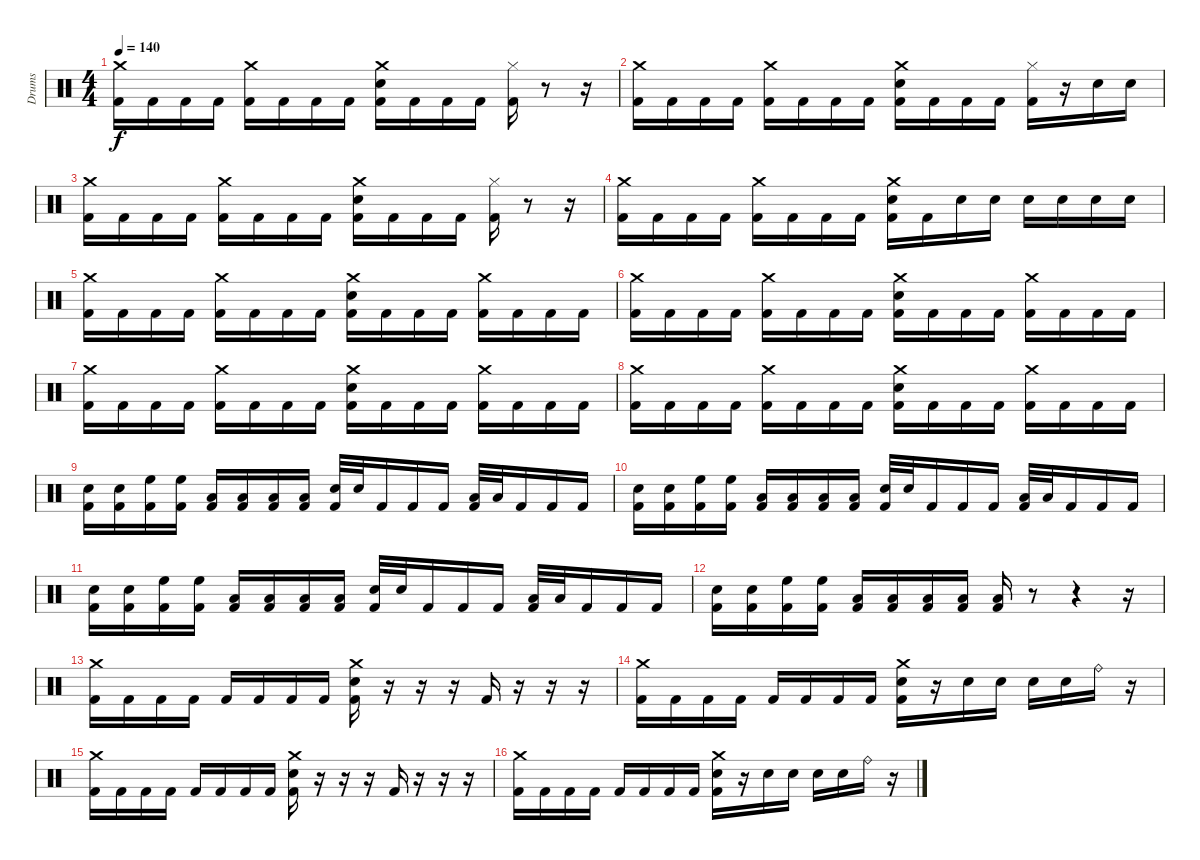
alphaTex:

\track ("Drums" "Drums") {instrument percussion}
\staff {score}
\articulation defaults
\ts (4 4)
\tempo 140
\clef neutral
\ks c
("Crash medium (hit)" "Kick (hit) 2").16{dy f} "Kick (hit) 2".16 "Kick (hit) 2".16 "Kick (hit) 2".16 ("Crash medium (hit)" "Kick (hit) 2").16 "Kick (hit) 2".16 "Kick (hit) 2".16 "Kick (hit) 2".16 ("Crash medium (hit)" "Electric Snare (hit)" "Kick (hit) 2").16 "Kick (hit) 2".16 "Kick (hit) 2".16 "Kick (hit) 2".16 ("Hi-Hat (closed)" "Kick (hit) 2").16 r.8 r.16 |
("Crash medium (hit)" "Kick (hit) 2").16 "Kick (hit) 2".16 "Kick (hit) 2".16 "Kick (hit) 2".16 ("Crash medium (hit)" "Kick (hit) 2").16 "Kick (hit) 2".16 "Kick (hit) 2".16 "Kick (hit) 2".16 ("Crash medium (hit)" "Electric Snare (hit)" "Kick (hit) 2").16 "Kick (hit) 2".16 "Kick (hit) 2".16 "Kick (hit) 2".16 ("Hi-Hat (closed)" "Kick (hit) 2").16 r.16 "Electric Snare (hit)".16 "Electric Snare (hit)".16 |
("Crash medium (hit)" "Kick (hit) 2").16 "Kick (hit) 2".16 "Kick (hit) 2".16 "Kick (hit) 2".16 ("Crash medium (hit)" "Kick (hit) 2").16 "Kick (hit) 2".16 "Kick (hit) 2".16 "Kick (hit) 2".16 ("Crash medium (hit)" "Electric Snare (hit)" "Kick (hit) 2").16 "Kick (hit) 2".16 "Kick (hit) 2".16 "Kick (hit) 2".16 ("Hi-Hat (closed)" "Kick (hit) 2").16 r.8 r.16 |
("Crash medium (hit)" "Kick (hit) 2").16 "Kick (hit) 2".16 "Kick (hit) 2".16 "Kick (hit) 2".16 ("Crash medium (hit)" "Kick (hit) 2").16 "Kick (hit) 2".16 "Kick (hit) 2".16 "Kick (hit) 2".16 ("Crash medium (hit)" "Electric Snare (hit)" "Kick (hit) 2").16 "Kick (hit) 2".16 "Electric Snare (hit)".16 "Electric Snare (hit)".16 "Electric Snare (hit)".16 "Electric Snare (hit)".16 "Electric Snare (hit)".16 "Electric Snare (hit)".16 |
("Crash medium (hit)" "Kick (hit) 2").16 "Kick (hit) 2".16 "Kick (hit) 2".16 "Kick (hit) 2".16 ("Crash medium (hit)" "Kick (hit) 2").16 "Kick (hit) 2".16 "Kick (hit) 2".16 "Kick (hit) 2".16 ("Crash medium (hit)" "Electric Snare (hit)" "Kick (hit) 2").16 "Kick (hit) 2".16 "Kick (hit) 2".16 "Kick (hit) 2".16 ("Crash medium (hit)" "Kick (hit) 2").16 "Kick (hit) 2".16 "Kick (hit) 2".16 "Kick (hit) 2".16 |
("Crash medium (hit)" "Kick (hit) 2").16 "Kick (hit) 2".16 "Kick (hit) 2".16 "Kick (hit) 2".16 ("Crash medium (hit)" "Kick (hit) 2").16 "Kick (hit) 2".16 "Kick (hit) 2".16 "Kick (hit) 2".16 ("Crash medium (hit)" "Electric Snare (hit)" "Kick (hit) 2").16 "Kick (hit) 2".16 "Kick (hit) 2".16 "Kick (hit) 2".16 ("Crash medium (hit)" "Kick (hit) 2").16 "Kick (hit) 2".16 "Kick (hit) 2".16 "Kick (hit) 2".16 |
("Crash medium (hit)" "Kick (hit) 2").16 "Kick (hit) 2".16 "Kick (hit) 2".16 "Kick (hit) 2".16 ("Crash medium (hit)" "Kick (hit) 2").16 "Kick (hit) 2".16 "Kick (hit) 2".16 "Kick (hit) 2".16 ("Crash medium (hit)" "Electric Snare (hit)" "Kick (hit) 2").16 "Kick (hit) 2".16 "Kick (hit) 2".16 "Kick (hit) 2".16 ("Crash medium (hit)" "Kick (hit) 2").16 "Kick (hit) 2".16 "Kick (hit) 2".16 "Kick (hit) 2".16 |
("Crash medium (hit)" "Kick (hit) 2").16 "Kick (hit) 2".16 "Kick (hit) 2".16 "Kick (hit) 2".16 ("Crash medium (hit)" "Kick (hit) 2").16 "Kick (hit) 2".16 "Kick (hit) 2".16 "Kick (hit) 2".16 ("Crash medium (hit)" "Electric Snare (hit)" "Kick (hit) 2").16 "Kick (hit) 2".16 "Kick (hit) 2".16 "Kick (hit) 2".16 ("Crash medium (hit)" "Kick (hit) 2").16 "Kick (hit) 2".16 "Kick (hit) 2".16 "Kick (hit) 2".16 |
("Electric Snare (hit)" "Kick (hit) 2").16 ("Electric Snare (hit)" "Kick (hit) 2").16 ("High Floor Tom (hit)" "Kick (hit) 2").16 ("High Floor Tom (hit)" "Kick (hit) 2").16 ("Low Tom (hit)" "Kick (hit) 2").16 ("Low Tom (hit)" "Kick (hit) 2").16 ("Low Tom (hit)" "Kick (hit) 2").16 ("Low Tom (hit)" "Kick (hit) 2").16 ("Electric Snare (hit)" "Kick (hit) 2").32 "Electric Snare (hit)".32 "Kick (hit) 2".16 "Kick (hit) 2".16 "Kick (hit) 2".16 ("Low Tom (hit)" "Kick (hit) 2").32 "Low Tom (hit)".32 "Kick (hit) 2".16 "Kick (hit) 2".16 "Kick (hit) 2".16 |
("Electric Snare (hit)" "Kick (hit) 2").16 ("Electric Snare (hit)" "Kick (hit) 2").16 ("High Floor Tom (hit)" "Kick (hit) 2").16 ("High Floor Tom (hit)" "Kick (hit) 2").16 ("Low Tom (hit)" "Kick (hit) 2").16 ("Low Tom (hit)" "Kick (hit) 2").16 ("Low Tom (hit)" "Kick (hit) 2").16 ("Low Tom (hit)" "Kick (hit) 2").16 ("Electric Snare (hit)" "Kick (hit) 2").32 "Electric Snare (hit)".32 "Kick (hit) 2".16 "Kick (hit) 2".16 "Kick (hit) 2".16 ("Low Tom (hit)" "Kick (hit) 2").32 "Low Tom (hit)".32 "Kick (hit) 2".16 "Kick (hit) 2".16 "Kick (hit) 2".16 |
("Electric Snare (hit)" "Kick (hit) 2").16 ("Electric Snare (hit)" "Kick (hit) 2").16 ("High Floor Tom (hit)" "Kick (hit) 2").16 ("High Floor Tom (hit)" "Kick (hit) 2").16 ("Low Tom (hit)" "Kick (hit) 2").16 ("Low Tom (hit)" "Kick (hit) 2").16 ("Low Tom (hit)" "Kick (hit) 2").16 ("Low Tom (hit)" "Kick (hit) 2").16 ("Electric Snare (hit)" "Kick (hit) 2").32 "Electric Snare (hit)".32 "Kick (hit) 2".16 "Kick (hit) 2".16 "Kick (hit) 2".16 ("Low Tom (hit)" "Kick (hit) 2").32 "Low Tom (hit)".32 "Kick (hit) 2".16 "Kick (hit) 2".16 "Kick (hit) 2".16 |
("Electric Snare (hit)" "Kick (hit) 2").16 ("Electric Snare (hit)" "Kick (hit) 2").16 ("High Floor Tom (hit)" "Kick (hit) 2").16 ("High Floor Tom (hit)" "Kick (hit) 2").16 ("Low Tom (hit)" "Kick (hit) 2").16 ("Low Tom (hit)" "Kick (hit) 2").16 ("Low Tom (hit)" "Kick (hit) 2").16 ("Low Tom (hit)" "Kick (hit) 2").16 ("Low Floor Tom (hit)" "Kick (hit) 2").16 r.8 r.4 r.16 |
("Crash medium (hit)" "Kick (hit) 2").16 "Kick (hit) 2".16 "Kick (hit) 2".16 "Kick (hit) 2".16 "Kick (hit) 2".16 "Kick (hit) 2".16 "Kick (hit) 2".16 "Kick (hit) 2".16 ("Crash medium (hit)" "Electric Snare (hit)" "Kick (hit) 2").16 r.16 r.16 r.16 "Kick (hit) 2".16 r.16 r.16 r.16 |
("Crash medium (hit)" "Kick (hit) 2").16 "Kick (hit) 2".16 "Kick (hit) 2".16 "Kick (hit) 2".16 "Kick (hit) 2".16 "Kick (hit) 2".16 "Kick (hit) 2".16 "Kick (hit) 2".16 ("Crash medium (hit)" "Electric Snare (hit)" "Kick (hit) 2").16 r.16 "Electric Snare (hit)".16 "Electric Snare (hit)".16 "Electric Snare (hit)".16 "Electric Snare (hit)".16 "Ride (bell)".16 r.16 |
("Crash medium (hit)" "Kick (hit) 2").16 "Kick (hit) 2".16 "Kick (hit) 2".16 "Kick (hit) 2".16 "Kick (hit) 2".16 "Kick (hit) 2".16 "Kick (hit) 2".16 "Kick (hit) 2".16 ("Crash medium (hit)" "Electric Snare (hit)" "Kick (hit) 2").16 r.16 r.16 r.16 "Kick (hit) 2".16 r.16 r.16 r.16 |
("Crash medium (hit)" "Kick (hit) 2").16 "Kick (hit) 2".16 "Kick (hit) 2".16 "Kick (hit) 2".16 "Kick (hit) 2".16 "Kick (hit) 2".16 "Kick (hit) 2".16 "Kick (hit) 2".16 ("Crash medium (hit)" "Electric Snare (hit)" "Kick (hit) 2").16 r.16 "Electric Snare (hit)".16 "Electric Snare (hit)".16 "Electric Snare (hit)".16 "Electric Snare (hit)".16 "Ride (bell)".16 r.16
